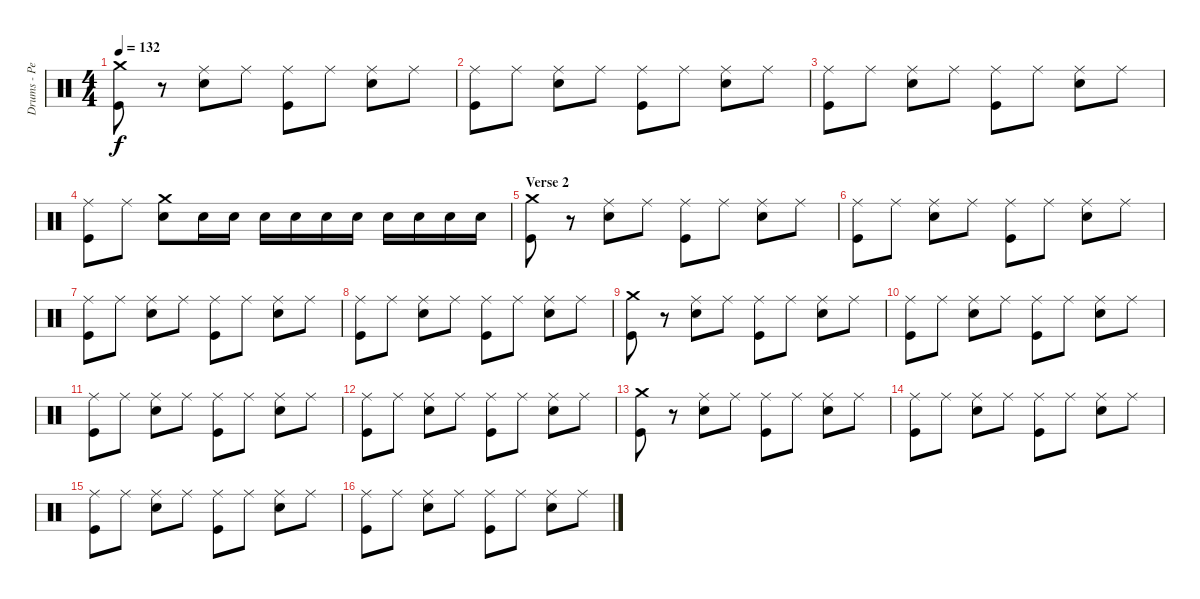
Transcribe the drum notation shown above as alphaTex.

\track ("Drums - Pete Gill" "Drums - Pe") {instrument percussion}
\staff {score}
\articulation defaults
\ts (4 4)
\tempo 132
\clef neutral
\ks c
("Crash medium (hit)" "Kick (hit)").8{dy f} r.8 ("Ride (middle)" "Snare (hit) 2").8 "Ride (middle)".8 ("Ride (middle)" "Kick (hit)").8 "Ride (middle)".8 ("Ride (middle)" "Snare (hit) 2").8 "Ride (middle)".8 |
("Ride (middle)" "Kick (hit)").8 "Ride (middle)".8 ("Ride (middle)" "Snare (hit) 2").8 "Ride (middle)".8 ("Ride (middle)" "Kick (hit)").8 "Ride (middle)".8 ("Ride (middle)" "Snare (hit) 2").8 "Ride (middle)".8 |
("Ride (middle)" "Kick (hit)").8 "Ride (middle)".8 ("Ride (middle)" "Snare (hit) 2").8 "Ride (middle)".8 ("Ride (middle)" "Kick (hit)").8 "Ride (middle)".8 ("Ride (middle)" "Snare (hit) 2").8 "Ride (middle)".8 |
("Ride (middle)" "Kick (hit)").8 "Ride (middle)".8 ("Crash medium (hit)" "Snare (hit) 2").8 "Snare (hit) 2".16 "Snare (hit) 2".16 "Snare (hit) 2".16 "Snare (hit) 2".16 "Snare (hit) 2".16 "Snare (hit) 2".16 "Snare (hit) 2".16 "Snare (hit) 2".16 "Snare (hit) 2".16 "Snare (hit) 2".16 |
\section ("" "Verse 2")
("Crash medium (hit)" "Kick (hit)").8 r.8 ("Ride (middle)" "Snare (hit) 2").8 "Ride (middle)".8 ("Ride (middle)" "Kick (hit)").8 "Ride (middle)".8 ("Ride (middle)" "Snare (hit) 2").8 "Ride (middle)".8 |
("Ride (middle)" "Kick (hit)").8 "Ride (middle)".8 ("Ride (middle)" "Snare (hit) 2").8 "Ride (middle)".8 ("Ride (middle)" "Kick (hit)").8 "Ride (middle)".8 ("Ride (middle)" "Snare (hit) 2").8 "Ride (middle)".8 |
("Ride (middle)" "Kick (hit)").8 "Ride (middle)".8 ("Ride (middle)" "Snare (hit) 2").8 "Ride (middle)".8 ("Ride (middle)" "Kick (hit)").8 "Ride (middle)".8 ("Ride (middle)" "Snare (hit) 2").8 "Ride (middle)".8 |
("Ride (middle)" "Kick (hit)").8 "Ride (middle)".8 ("Ride (middle)" "Snare (hit) 2").8 "Ride (middle)".8 ("Ride (middle)" "Kick (hit)").8 "Ride (middle)".8 ("Ride (middle)" "Snare (hit) 2").8 "Ride (middle)".8 |
("Crash medium (hit)" "Kick (hit)").8 r.8 ("Ride (middle)" "Snare (hit) 2").8 "Ride (middle)".8 ("Ride (middle)" "Kick (hit)").8 "Ride (middle)".8 ("Ride (middle)" "Snare (hit) 2").8 "Ride (middle)".8 |
("Ride (middle)" "Kick (hit)").8 "Ride (middle)".8 ("Ride (middle)" "Snare (hit) 2").8 "Ride (middle)".8 ("Ride (middle)" "Kick (hit)").8 "Ride (middle)".8 ("Ride (middle)" "Snare (hit) 2").8 "Ride (middle)".8 |
("Ride (middle)" "Kick (hit)").8 "Ride (middle)".8 ("Ride (middle)" "Snare (hit) 2").8 "Ride (middle)".8 ("Ride (middle)" "Kick (hit)").8 "Ride (middle)".8 ("Ride (middle)" "Snare (hit) 2").8 "Ride (middle)".8 |
("Ride (middle)" "Kick (hit)").8 "Ride (middle)".8 ("Ride (middle)" "Snare (hit) 2").8 "Ride (middle)".8 ("Ride (middle)" "Kick (hit)").8 "Ride (middle)".8 ("Ride (middle)" "Snare (hit) 2").8 "Ride (middle)".8 |
("Crash medium (hit)" "Kick (hit)").8 r.8 ("Ride (middle)" "Snare (hit) 2").8 "Ride (middle)".8 ("Ride (middle)" "Kick (hit)").8 "Ride (middle)".8 ("Ride (middle)" "Snare (hit) 2").8 "Ride (middle)".8 |
("Ride (middle)" "Kick (hit)").8 "Ride (middle)".8 ("Ride (middle)" "Snare (hit) 2").8 "Ride (middle)".8 ("Ride (middle)" "Kick (hit)").8 "Ride (middle)".8 ("Ride (middle)" "Snare (hit) 2").8 "Ride (middle)".8 |
("Ride (middle)" "Kick (hit)").8 "Ride (middle)".8 ("Ride (middle)" "Snare (hit) 2").8 "Ride (middle)".8 ("Ride (middle)" "Kick (hit)").8 "Ride (middle)".8 ("Ride (middle)" "Snare (hit) 2").8 "Ride (middle)".8 |
("Ride (middle)" "Kick (hit)").8 "Ride (middle)".8 ("Ride (middle)" "Snare (hit) 2").8 "Ride (middle)".8 ("Ride (middle)" "Kick (hit)").8 "Ride (middle)".8 ("Ride (middle)" "Snare (hit) 2").8 "Ride (middle)".8
